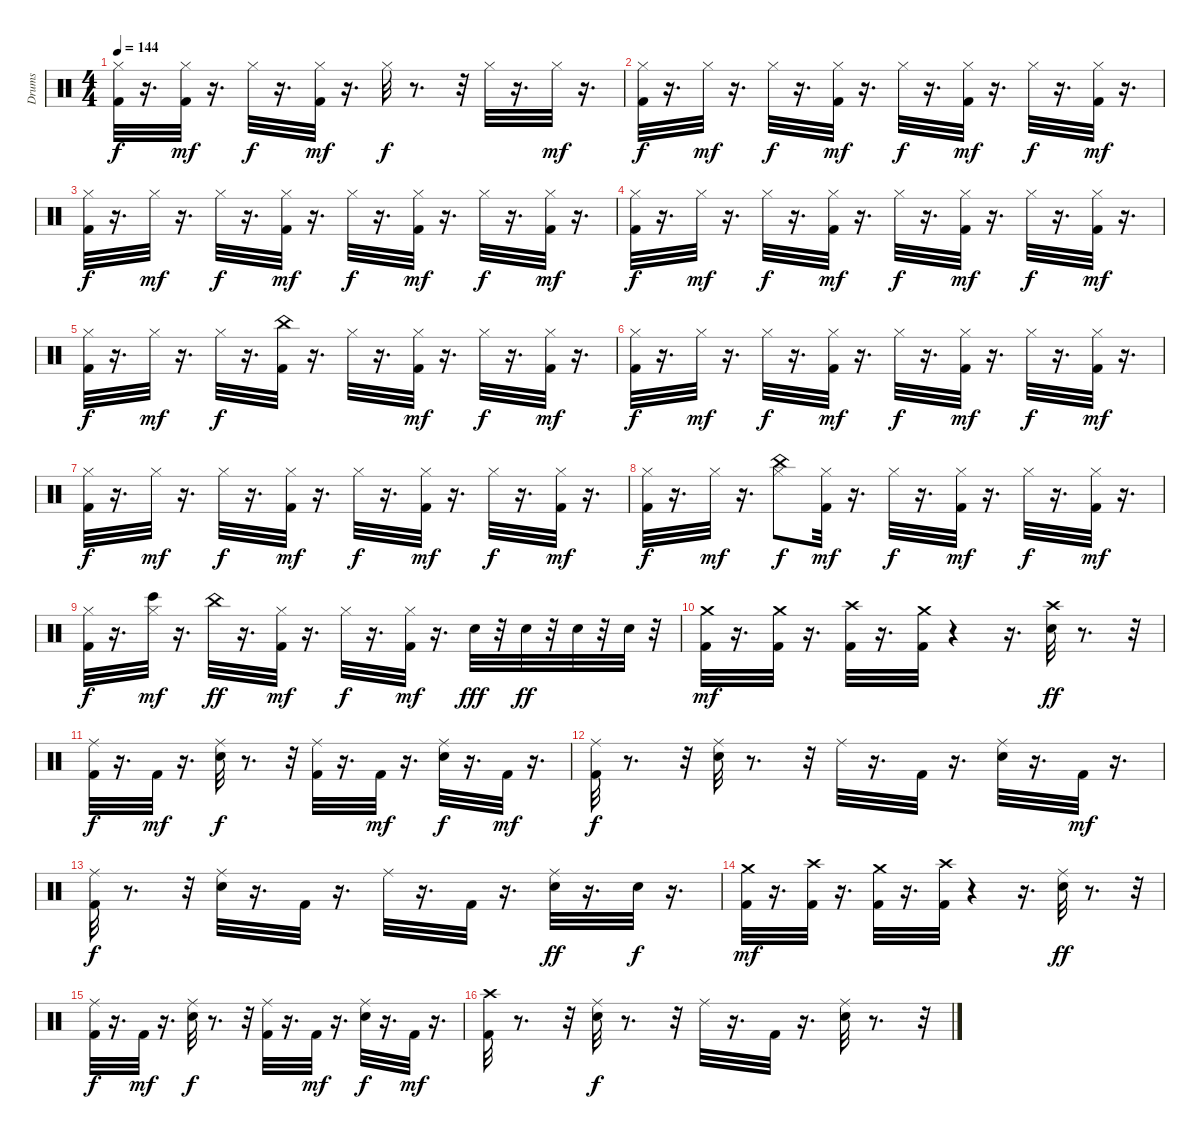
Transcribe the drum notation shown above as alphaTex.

\track ("Drums" "Drums") {instrument percussion}
\staff {score}
\articulation defaults
\ts (4 4)
\tempo 144
\clef neutral
\ks c
("Hi-Hat (closed)" "Kick (hit) 2").32{dy f} r.16{d} ("Hi-Hat (closed)" "Kick (hit) 2").32{dy mf} r.16{d} "Hi-Hat (closed)".32{dy f} r.16{d} ("Kick (hit) 2" "Hi-Hat (closed)").32{dy mf} r.16{d} "Hi-Hat (closed)".32{dy f} r.8{d} r.32 "Hi-Hat (closed)".32 r.16{d} "Hi-Hat (closed)".32{dy mf} r.16{d} |
("Hi-Hat (closed)" "Kick (hit) 2").32{dy f} r.16{d} "Hi-Hat (closed)".32{dy mf} r.16{d} "Hi-Hat (closed)".32{dy f} r.16{d} ("Hi-Hat (closed)" "Kick (hit) 2").32{dy mf} r.16{d} "Hi-Hat (closed)".32{dy f} r.16{d} ("Hi-Hat (closed)" "Kick (hit) 2").32{dy mf} r.16{d} "Hi-Hat (closed)".32{dy f} r.16{d} ("Hi-Hat (closed)" "Kick (hit) 2").32{dy mf} r.16{d} |
("Hi-Hat (closed)" "Kick (hit) 2").32{dy f} r.16{d} "Hi-Hat (closed)".32{dy mf} r.16{d} "Hi-Hat (closed)".32{dy f} r.16{d} ("Hi-Hat (closed)" "Kick (hit) 2").32{dy mf} r.16{d} "Hi-Hat (closed)".32{dy f} r.16{d} ("Hi-Hat (closed)" "Kick (hit) 2").32{dy mf} r.16{d} "Hi-Hat (closed)".32{dy f} r.16{d} ("Hi-Hat (closed)" "Kick (hit) 2").32{dy mf} r.16{d} |
("Hi-Hat (closed)" "Kick (hit) 2").32{dy f} r.16{d} "Hi-Hat (closed)".32{dy mf} r.16{d} "Hi-Hat (closed)".32{dy f} r.16{d} ("Hi-Hat (closed)" "Kick (hit) 2").32{dy mf} r.16{d} "Hi-Hat (closed)".32{dy f} r.16{d} ("Hi-Hat (closed)" "Kick (hit) 2").32{dy mf} r.16{d} "Hi-Hat (closed)".32{dy f} r.16{d} ("Hi-Hat (closed)" "Kick (hit) 2").32{dy mf} r.16{d} |
("Hi-Hat (closed)" "Kick (hit) 2").32{dy f} r.16{d} "Hi-Hat (closed)".32{dy mf} r.16{d} "Hi-Hat (closed)".32{dy f} r.16{d} ("Kick (hit) 2" "China (hit)").32 r.16{d} "Hi-Hat (closed)".32 r.16{d} ("Hi-Hat (closed)" "Kick (hit) 2").32{dy mf} r.16{d} "Hi-Hat (closed)".32{dy f} r.16{d} ("Hi-Hat (closed)" "Kick (hit) 2").32{dy mf} r.16{d} |
("Hi-Hat (closed)" "Kick (hit) 2").32{dy f} r.16{d} "Hi-Hat (closed)".32{dy mf} r.16{d} "Hi-Hat (closed)".32{dy f} r.16{d} ("Hi-Hat (closed)" "Kick (hit) 2").32{dy mf} r.16{d} "Hi-Hat (closed)".32{dy f} r.16{d} ("Hi-Hat (closed)" "Kick (hit) 2").32{dy mf} r.16{d} "Hi-Hat (closed)".32{dy f} r.16{d} ("Hi-Hat (closed)" "Kick (hit) 2").32{dy mf} r.16{d} |
("Hi-Hat (closed)" "Kick (hit) 2").32{dy f} r.16{d} "Hi-Hat (closed)".32{dy mf} r.16{d} "Hi-Hat (closed)".32{dy f} r.16{d} ("Hi-Hat (closed)" "Kick (hit) 2").32{dy mf} r.16{d} "Hi-Hat (closed)".32{dy f} r.16{d} ("Hi-Hat (closed)" "Kick (hit) 2").32{dy mf} r.16{d} "Hi-Hat (closed)".32{dy f} r.16{d} ("Hi-Hat (closed)" "Kick (hit) 2").32{dy mf} r.16{d} |
("Hi-Hat (closed)" "Kick (hit) 2").32{dy f} r.16{d} "Hi-Hat (closed)".32{dy mf} r.16{d} ("China (hit)" "Hi-Hat (closed)").8{dy f} ("Hi-Hat (closed)" "Kick (hit) 2").32{dy mf} r.16{d} "Hi-Hat (closed)".32{dy f} r.16{d} ("Hi-Hat (closed)" "Kick (hit) 2").32{dy mf} r.16{d} "Hi-Hat (closed)".32{dy f} r.16{d} ("Hi-Hat (closed)" "Kick (hit) 2").32{dy mf} r.16{d} |
("Hi-Hat (closed)" "Kick (hit) 2").32{dy f} r.16{d} ("Bongo High (hit)" "Hi-Hat (closed)").32{dy mf} r.16{d} "China (hit)".32{dy ff} r.16{d} ("Kick (hit) 2" "Hi-Hat (closed)").32{dy mf} r.16{d} "Hi-Hat (closed)".32{dy f} r.16{d} ("Hi-Hat (closed)" "Kick (hit) 2").32{dy mf} r.16{d} "Snare (hit) 2".32{dy fff} r.32 "Snare (hit) 2".32{dy ff} r.32 "Snare (hit) 2".32 r.32 "Snare (hit) 2".32 r.32 |
("Crash medium (hit)" "Kick (hit) 2").32{dy mf} r.16{d} ("Crash medium (hit)" "Kick (hit) 2").32 r.16{d} ("Crash high (hit)" "Kick (hit) 2").32 r.16{d} ("Crash medium (hit)" "Kick (hit) 2").32 r.4 r.16{d} ("Crash high (hit)" "Snare (hit) 2").32{dy ff} r.8{d} r.32 |
("Ride (middle)" "Kick (hit) 2").32{dy f} r.16{d} "Kick (hit) 2".32{dy mf} r.16{d} ("Ride (middle)" "Snare (hit) 2").32{dy f} r.8{d} r.32 ("Ride (middle)" "Kick (hit) 2").32 r.16{d} "Kick (hit) 2".32{dy mf} r.16{d} ("Ride (middle)" "Snare (hit) 2").32{dy f} r.16{d} "Kick (hit) 2".32{dy mf} r.16{d} |
("Ride (middle)" "Kick (hit) 2").32{dy f} r.8{d} r.32 ("Ride (middle)" "Snare (hit) 2").32 r.8{d} r.32 "Ride (middle)".32 r.16{d} "Kick (hit) 2".32 r.16{d} ("Ride (middle)" "Snare (hit) 2").32 r.16{d} "Kick (hit) 2".32{dy mf} r.16{d} |
("Ride (middle)" "Kick (hit) 2").32{dy f} r.8{d} r.32 ("Ride (middle)" "Snare (hit) 2").32 r.16{d} "Kick (hit) 2".32 r.16{d} "Ride (middle)".32 r.16{d} "Kick (hit) 2".32 r.16{d} ("Ride (middle)" "Snare (hit) 2").32{dy ff} r.16{d} "Snare (hit) 2".32{dy f} r.16{d} |
("Crash medium (hit)" "Kick (hit) 2").32{dy mf} r.16{d} ("Crash high (hit)" "Kick (hit) 2").32 r.16{d} ("Crash medium (hit)" "Kick (hit) 2").32 r.16{d} ("Crash high (hit)" "Kick (hit) 2").32 r.4 r.16{d} ("Ride (middle)" "Snare (hit) 2").32{dy ff} r.8{d} r.32 |
("Ride (middle)" "Kick (hit) 2").32{dy f} r.16{d} "Kick (hit) 2".32{dy mf} r.16{d} ("Ride (middle)" "Snare (hit) 2").32{dy f} r.8{d} r.32 ("Ride (middle)" "Kick (hit) 2").32 r.16{d} "Kick (hit) 2".32{dy mf} r.16{d} ("Ride (middle)" "Snare (hit) 2").32{dy f} r.16{d} "Kick (hit) 2".32{dy mf} r.16{d} |
("Crash high (hit)" "Kick (hit) 2").32 r.8{d} r.32 ("Ride (middle)" "Snare (hit) 2").32{dy f} r.8{d} r.32 "Ride (middle)".32 r.16{d} "Kick (hit) 2".32 r.16{d} ("Ride (middle)" "Snare (hit) 2").32 r.8{d} r.32
